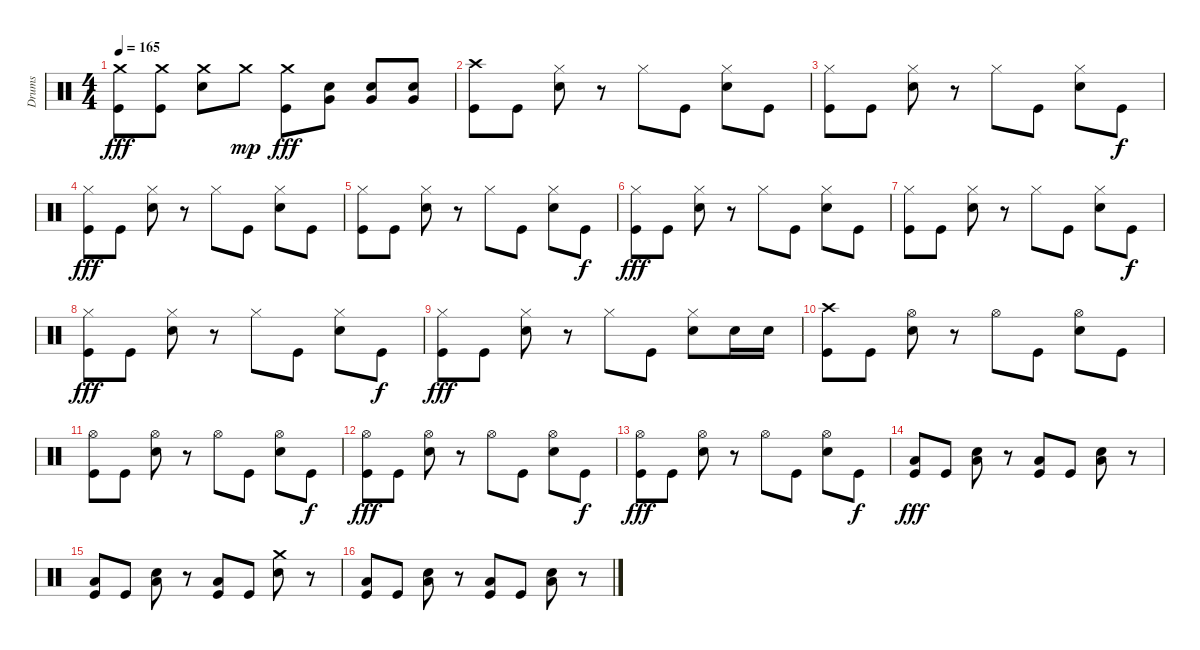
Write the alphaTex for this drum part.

\track ("Drums" "Drums") {instrument percussion}
\staff {score}
\articulation defaults
\ts (4 4)
\tempo 165
\clef neutral
\ks c
("Crash medium (hit)" "Kick (hit)").8{dy fff} ("Crash medium (hit)" "Kick (hit)").8 ("Crash medium (hit)" "Snare (hit) 2").8 "Crash medium (hit)".8{dy mp} ("Crash medium (hit)" "Kick (hit)").8{dy fff} ("Snare (hit) 2" "Very Low Tom (hit)").8 ("Snare (hit) 2" "Very Low Tom (hit)").8 ("Snare (hit) 2" "Very Low Tom (hit)").8 |
("Crash high (hit)" "Kick (hit)").8 "Kick (hit)".8 ("Hi-Hat (closed)" "Snare (hit) 2").8 r.8 "Hi-Hat (closed)".8 "Kick (hit)".8 ("Hi-Hat (closed)" "Snare (hit) 2").8 "Kick (hit)".8 |
("Hi-Hat (closed)" "Kick (hit)").8 "Kick (hit)".8 ("Hi-Hat (closed)" "Snare (hit) 2").8 r.8 "Hi-Hat (closed)".8 "Kick (hit)".8 ("Hi-Hat (closed)" "Snare (hit) 2").8 "Kick (hit)".8{dy f} |
("Hi-Hat (closed)" "Kick (hit)").8{dy fff} "Kick (hit)".8 ("Hi-Hat (closed)" "Snare (hit) 2").8 r.8 "Hi-Hat (closed)".8 "Kick (hit)".8 ("Hi-Hat (closed)" "Snare (hit) 2").8 "Kick (hit)".8 |
("Hi-Hat (closed)" "Kick (hit)").8 "Kick (hit)".8 ("Hi-Hat (closed)" "Snare (hit) 2").8 r.8 "Hi-Hat (closed)".8 "Kick (hit)".8 ("Hi-Hat (closed)" "Snare (hit) 2").8 "Kick (hit)".8{dy f} |
("Hi-Hat (closed)" "Kick (hit)").8{dy fff} "Kick (hit)".8 ("Hi-Hat (closed)" "Snare (hit) 2").8 r.8 "Hi-Hat (closed)".8 "Kick (hit)".8 ("Hi-Hat (closed)" "Snare (hit) 2").8 "Kick (hit)".8 |
("Hi-Hat (closed)" "Kick (hit)").8 "Kick (hit)".8 ("Hi-Hat (closed)" "Snare (hit) 2").8 r.8 "Hi-Hat (closed)".8 "Kick (hit)".8 ("Hi-Hat (closed)" "Snare (hit) 2").8 "Kick (hit)".8{dy f} |
("Hi-Hat (closed)" "Kick (hit)").8{dy fff} "Kick (hit)".8 ("Hi-Hat (closed)" "Snare (hit) 2").8 r.8 "Hi-Hat (closed)".8 "Kick (hit)".8 ("Hi-Hat (closed)" "Snare (hit) 2").8 "Kick (hit)".8{dy f} |
("Hi-Hat (closed)" "Kick (hit)").8{dy fff} "Kick (hit)".8 ("Hi-Hat (closed)" "Snare (hit) 2").8 r.8 "Hi-Hat (closed)".8 "Kick (hit)".8 ("Hi-Hat (closed)" "Snare (hit) 2").8 "Snare (hit) 2".16 "Snare (hit) 2".16 |
("Crash high (hit)" "Kick (hit)").8 "Kick (hit)".8 ("Hi-Hat (open)" "Snare (hit) 2").8 r.8 "Hi-Hat (open)".8 "Kick (hit)".8 ("Hi-Hat (open)" "Snare (hit) 2").8 "Kick (hit)".8 |
("Hi-Hat (open)" "Kick (hit)").8 "Kick (hit)".8 ("Hi-Hat (open)" "Snare (hit) 2").8 r.8 "Hi-Hat (open)".8 "Kick (hit)".8 ("Hi-Hat (open)" "Snare (hit) 2").8 "Kick (hit)".8{dy f} |
("Hi-Hat (open)" "Kick (hit)").8{dy fff} "Kick (hit)".8 ("Hi-Hat (open)" "Snare (hit) 2").8 r.8 "Hi-Hat (open)".8 "Kick (hit)".8 ("Hi-Hat (open)" "Snare (hit) 2").8 "Kick (hit)".8{dy f} |
("Hi-Hat (open)" "Kick (hit)").8{dy fff} "Kick (hit)".8 ("Hi-Hat (open)" "Snare (hit) 2").8 r.8 "Hi-Hat (open)".8 "Kick (hit)".8 ("Hi-Hat (open)" "Snare (hit) 2").8 "Kick (hit)".8{dy f} |
("Low Tom (hit)" "Kick (hit)").8{dy fff} "Kick (hit)".8 ("Snare (hit) 2" "Low Tom (hit)").8 r.8 ("Low Tom (hit)" "Kick (hit)").8 "Kick (hit)".8 ("Snare (hit) 2" "Low Tom (hit)").8 r.8 |
("Low Tom (hit)" "Kick (hit)").8 "Kick (hit)".8 ("Snare (hit) 2" "Low Tom (hit)").8 r.8 ("Low Tom (hit)" "Kick (hit)").8 "Kick (hit)".8 ("Crash medium (hit)" "Snare (hit) 2").8 r.8 |
("Low Tom (hit)" "Kick (hit)").8 "Kick (hit)".8 ("Snare (hit) 2" "Low Tom (hit)").8 r.8 ("Low Tom (hit)" "Kick (hit)").8 "Kick (hit)".8 ("Snare (hit) 2" "Low Tom (hit)").8 r.8
